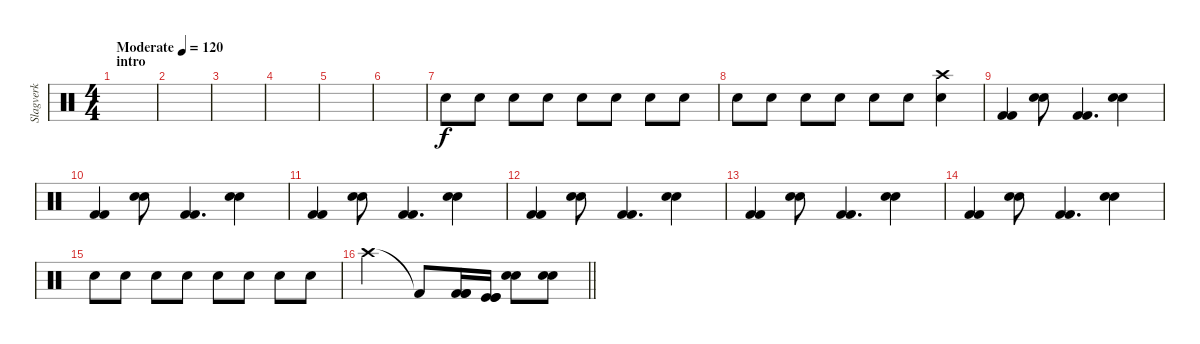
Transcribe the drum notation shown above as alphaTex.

\track ("Slagverk" "Slagverk") {instrument percussion}
\staff {score}
\articulation defaults
\ts (4 4)
\section ("" "intro")
\tempo (120 "Moderate")
\clef neutral
\ks c
|
|
|
|
|
|
"Snare (hit) 2".8 "Snare (hit) 2".8 "Snare (hit) 2".8 "Snare (hit) 2".8 "Snare (hit) 2".8 "Snare (hit) 2".8 "Snare (hit) 2".8 "Snare (hit) 2".8 |
"Snare (hit) 2".8 "Snare (hit) 2".8 "Snare (hit) 2".8 "Snare (hit) 2".8 "Snare (hit) 2".8 "Snare (hit) 2".8 ("Snare (hit) 2" "Crash high (hit)").4 |
("Kick (hit) 2" "Kick (hit) 2").4 ("Snare (hit) 2" "Snare (hit) 2").8 ("Kick (hit) 2" "Kick (hit) 2").4{d} ("Snare (hit) 2" "Snare (hit) 2").4 |
("Kick (hit) 2" "Kick (hit) 2").4 ("Snare (hit) 2" "Snare (hit) 2").8 ("Kick (hit) 2" "Kick (hit) 2").4{d} ("Snare (hit) 2" "Snare (hit) 2").4 |
("Kick (hit) 2" "Kick (hit) 2").4 ("Snare (hit) 2" "Snare (hit) 2").8 ("Kick (hit) 2" "Kick (hit) 2").4{d} ("Snare (hit) 2" "Snare (hit) 2").4 |
("Kick (hit) 2" "Kick (hit) 2").4 ("Snare (hit) 2" "Snare (hit) 2").8 ("Kick (hit) 2" "Kick (hit) 2").4{d} ("Snare (hit) 2" "Snare (hit) 2").4 |
("Kick (hit) 2" "Kick (hit) 2").4 ("Snare (hit) 2" "Snare (hit) 2").8 ("Kick (hit) 2" "Kick (hit) 2").4{d} ("Snare (hit) 2" "Snare (hit) 2").4 |
("Kick (hit) 2" "Kick (hit) 2").4 ("Snare (hit) 2" "Snare (hit) 2").8 ("Kick (hit) 2" "Kick (hit) 2").4{d} ("Snare (hit) 2" "Snare (hit) 2").4 |
"Snare (hit) 2".8 "Snare (hit) 2".8 "Snare (hit) 2".8 "Snare (hit) 2".8 "Snare (hit) 2".8 "Snare (hit) 2".8 "Snare (hit) 2".8 "Snare (hit) 2".8 |
\barLineRight lightlight "Crash high (hit)".2 "Kick (hit) 2"{t}.8
("Kick (hit) 2" "Kick (hit) 2" "Kick (hit) 2").16 ("Kick (hit)" "Kick (hit)" "Kick (hit)").16 ("Snare (hit) 2" "Snare (hit) 2").8 ("Snare (hit) 2" "Snare (hit) 2").8
